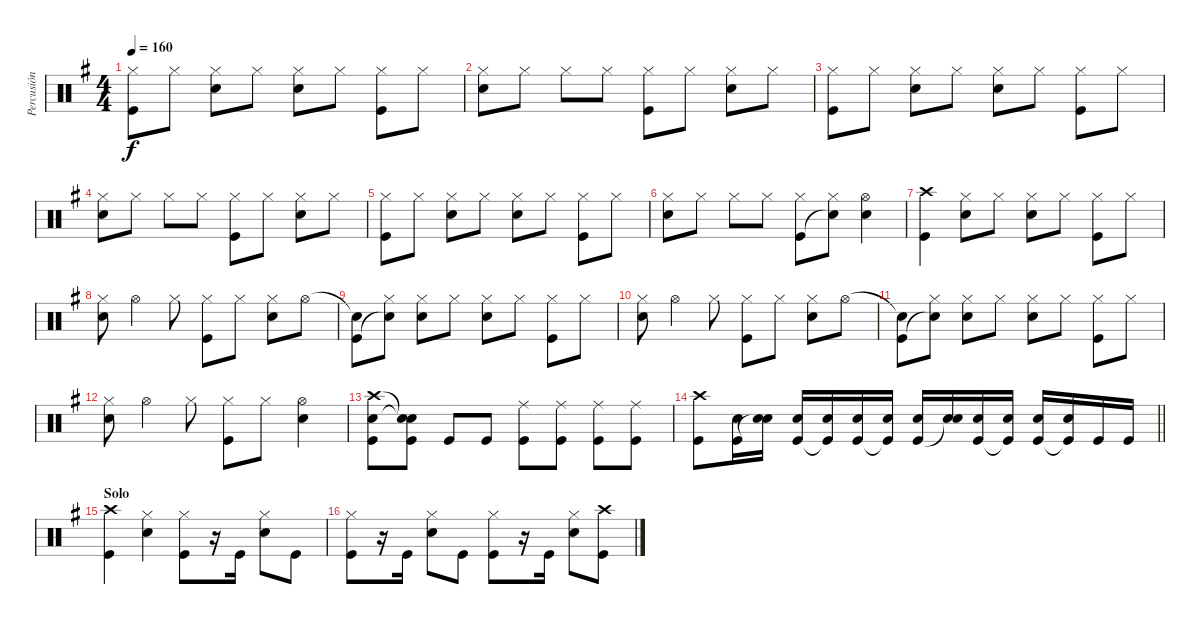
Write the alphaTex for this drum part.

\track ("Percusión" "Percusión") {instrument percussion}
\staff {score}
\articulation defaults
\ts (4 4)
\tempo 160
\clef neutral
\ks g
("Hi-Hat (closed)" "Kick (hit)").8{dy f} "Hi-Hat (closed)".8 ("Hi-Hat (closed)" "Snare (hit) 2").8 "Hi-Hat (closed)".8 ("Hi-Hat (closed)" "Snare (hit) 2").8 "Hi-Hat (closed)".8 ("Hi-Hat (closed)" "Kick (hit)").8 "Hi-Hat (closed)".8 |
("Hi-Hat (closed)" "Snare (hit) 2").8 "Hi-Hat (closed)".8 "Hi-Hat (closed)".8 "Hi-Hat (closed)".8 ("Hi-Hat (closed)" "Kick (hit)").8 "Hi-Hat (closed)".8 ("Hi-Hat (closed)" "Snare (hit) 2").8 "Hi-Hat (closed)".8 |
("Hi-Hat (closed)" "Kick (hit)").8 "Hi-Hat (closed)".8 ("Hi-Hat (closed)" "Snare (hit) 2").8 "Hi-Hat (closed)".8 ("Hi-Hat (closed)" "Snare (hit) 2").8 "Hi-Hat (closed)".8 ("Hi-Hat (closed)" "Kick (hit)").8 "Hi-Hat (closed)".8 |
("Hi-Hat (closed)" "Snare (hit) 2").8 "Hi-Hat (closed)".8 "Hi-Hat (closed)".8 "Hi-Hat (closed)".8 ("Hi-Hat (closed)" "Kick (hit)").8 "Hi-Hat (closed)".8 ("Hi-Hat (closed)" "Snare (hit) 2").8 "Hi-Hat (closed)".8 |
("Hi-Hat (closed)" "Kick (hit)").8 "Hi-Hat (closed)".8 ("Hi-Hat (closed)" "Snare (hit) 2").8 "Hi-Hat (closed)".8 ("Hi-Hat (closed)" "Snare (hit) 2").8 "Hi-Hat (closed)".8 ("Hi-Hat (closed)" "Kick (hit)").8 "Hi-Hat (closed)".8 |
("Hi-Hat (closed)" "Snare (hit) 2").8 "Hi-Hat (closed)".8 "Hi-Hat (closed)".8 "Hi-Hat (closed)".8 ("Hi-Hat (closed)" "Kick (hit)").8 ("Hi-Hat (closed)" "Snare (hit)"{t}).8 ("Hi-Hat (open)" "Snare (hit) 2").4 |
("Crash high (hit)" "Kick (hit)").4 ("Hi-Hat (closed)" "Snare (hit) 2").8 "Hi-Hat (closed)".8 ("Hi-Hat (closed)" "Snare (hit) 2").8 "Hi-Hat (closed)".8 ("Hi-Hat (closed)" "Kick (hit)").8 "Hi-Hat (closed)".8 |
("Hi-Hat (closed)" "Snare (hit) 2").8 "Hi-Hat (open)".4 "Hi-Hat (closed)".8 ("Hi-Hat (closed)" "Kick (hit)").8 "Hi-Hat (closed)".8 ("Hi-Hat (closed)" "Snare (hit) 2").8 "Hi-Hat (open)".8 |
("Snare (hit)"{t} "Kick (hit)").8 ("Hi-Hat (closed)" "Snare (hit)"{t}).8 ("Hi-Hat (closed)" "Snare (hit) 2").8 "Hi-Hat (closed)".8 ("Hi-Hat (closed)" "Snare (hit) 2").8 "Hi-Hat (closed)".8 ("Hi-Hat (closed)" "Kick (hit)").8 "Hi-Hat (closed)".8 |
("Hi-Hat (closed)" "Snare (hit) 2").8 "Hi-Hat (open)".4 "Hi-Hat (closed)".8 ("Hi-Hat (closed)" "Kick (hit)").8 "Hi-Hat (closed)".8 ("Hi-Hat (closed)" "Snare (hit) 2").8 "Hi-Hat (open)".8 |
("Snare (hit)"{t} "Kick (hit)").8 ("Hi-Hat (closed)" "Snare (hit)"{t}).8 ("Hi-Hat (closed)" "Snare (hit) 2").8 "Hi-Hat (closed)".8 ("Hi-Hat (closed)" "Snare (hit) 2").8 "Hi-Hat (closed)".8 ("Hi-Hat (closed)" "Kick (hit)").8 "Hi-Hat (closed)".8 |
("Hi-Hat (closed)" "Snare (hit) 2").8 "Hi-Hat (open)".4 "Hi-Hat (closed)".8 ("Hi-Hat (closed)" "Kick (hit)").8 "Hi-Hat (closed)".8 ("Hi-Hat (open)" "Snare (hit) 2").4 |
("Crash high (hit)" "Kick (hit)" "Snare (hit) 2").8 ("Snare (hit)"{t} "Kick (hit)" "Snare (hit)"{t}).8 "Kick (hit)".8 "Kick (hit)".8 ("Ride (middle)" "Kick (hit)").8 ("Ride (middle)" "Kick (hit)").8 ("Ride (middle)" "Kick (hit)").8 ("Ride (middle)" "Kick (hit)").8 |
\barLineRight lightlight
("Crash high (hit)" "Kick (hit)").8 ("Kick (hit)" "Snare (hit) 2").16 ("Snare (hit)"{t} "Snare (hit) 2").16 ("Kick (hit)" "Snare (hit) 2").16 ("Kick (hit)"{t} "Snare (hit) 2").16 ("Kick (hit)" "Snare (hit) 2").16 ("Kick (hit)"{t} "Snare (hit) 2").16 ("Kick (hit)" "Snare (hit) 2").16 ("Snare (hit)"{t} "Snare (hit) 2").16 ("Kick (hit)" "Snare (hit) 2").16 ("Kick (hit)"{t} "Snare (hit) 2").16 ("Kick (hit)" "Snare (hit) 2").16 ("Kick (hit)"{t} "Snare (hit) 2").16 "Kick (hit)".16 "Kick (hit)".16 |
\section ("" "Solo")
("Crash high (hit)" "Kick (hit)").4 ("Hi-Hat (closed)" "Snare (hit) 2").4 ("Hi-Hat (closed)" "Kick (hit)").8 r.16 "Kick (hit)".16 ("Hi-Hat (closed)" "Snare (hit) 2").8 "Kick (hit)".8 |
("Hi-Hat (closed)" "Kick (hit)").8 r.16 "Kick (hit)".16 ("Hi-Hat (closed)" "Snare (hit) 2").8 "Kick (hit)".8 ("Hi-Hat (closed)" "Kick (hit)").8 r.16 "Kick (hit)".16 ("Hi-Hat (closed)" "Snare (hit) 2").8 ("Crash high (hit)" "Kick (hit)").8
